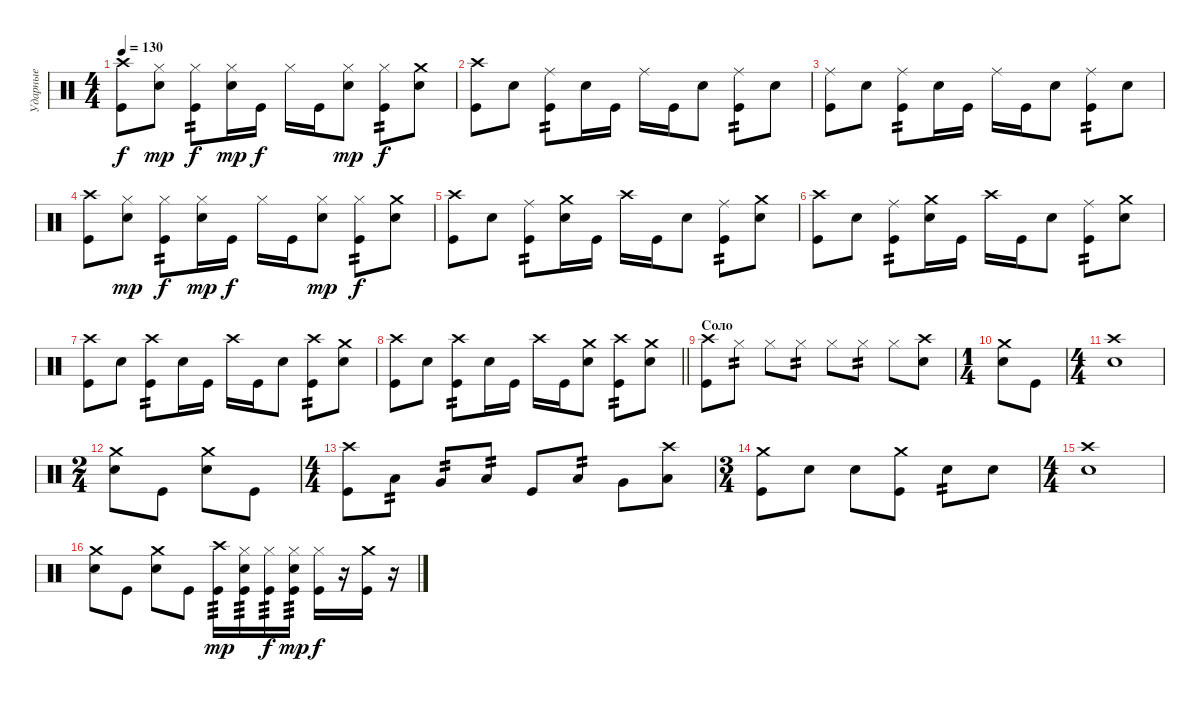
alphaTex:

\track ("Ударные" "Ударные") {instrument percussion}
\staff {score}
\articulation defaults
\ts (4 4)
\tempo 130
\clef neutral
\ks c
("Crash high (hit)" "Kick (hit)").8{dy f} ("Hi-Hat (closed)" "Snare (hit) 2").8{dy mp} ("Hi-Hat (closed)" "Kick (hit)").8{tp 2 dy f} ("Hi-Hat (closed)" "Snare (hit) 2").16{dy mp} "Kick (hit)".16{dy f} "Hi-Hat (closed)".16 "Kick (hit)".16 ("Hi-Hat (closed)" "Snare (hit) 2").8{dy mp} ("Hi-Hat (closed)" "Kick (hit)").8{tp 2 dy f} ("Crash medium (hit)" "Snare (hit) 2").8 |
("Crash high (hit)" "Kick (hit)").8 "Snare (hit) 2".8 ("Ride (middle)" "Kick (hit)").8{tp 2} "Snare (hit) 2".16 "Kick (hit)".16 "Ride (middle)".16 "Kick (hit)".16 "Snare (hit) 2".8 ("Ride (middle)" "Kick (hit)").8{tp 2} "Snare (hit) 2".8 |
("Ride (middle)" "Kick (hit)").8 "Snare (hit) 2".8 ("Ride (middle)" "Kick (hit)").8{tp 2} "Snare (hit) 2".16 "Kick (hit)".16 "Ride (middle)".16 "Kick (hit)".16 "Snare (hit) 2".8 ("Ride (middle)" "Kick (hit)").8{tp 2} "Snare (hit) 2".8 |
("Crash high (hit)" "Kick (hit)").8 ("Hi-Hat (closed)" "Snare (hit) 2").8{dy mp} ("Hi-Hat (closed)" "Kick (hit)").8{tp 2 dy f} ("Hi-Hat (closed)" "Snare (hit) 2").16{dy mp} "Kick (hit)".16{dy f} "Hi-Hat (closed)".16 "Kick (hit)".16 ("Hi-Hat (closed)" "Snare (hit) 2").8{dy mp} ("Hi-Hat (closed)" "Kick (hit)").8{tp 2 dy f} ("Crash medium (hit)" "Snare (hit) 2").8 |
("Crash high (hit)" "Kick (hit)").8 "Snare (hit) 2".8 ("Ride (middle)" "Kick (hit)").8{tp 2} ("Crash medium (hit)" "Snare (hit) 2").16 "Kick (hit)".16 "Crash high (hit)".16 "Kick (hit)".16 "Snare (hit) 2".8 ("Ride (middle)" "Kick (hit)").8{tp 2} ("Crash medium (hit)" "Snare (hit) 2").8 |
("Crash high (hit)" "Kick (hit)").8 "Snare (hit) 2".8 ("Ride (middle)" "Kick (hit)").8{tp 2} ("Crash medium (hit)" "Snare (hit) 2").16 "Kick (hit)".16 "Crash high (hit)".16 "Kick (hit)".16 "Snare (hit) 2".8 ("Ride (middle)" "Kick (hit)").8{tp 2} ("Crash medium (hit)" "Snare (hit) 2").8 |
("Crash high (hit)" "Kick (hit)").8 "Snare (hit) 2".8 ("Crash high (hit)" "Kick (hit)").8{tp 2} "Snare (hit) 2".16 "Kick (hit)".16 "Crash high (hit)".16 "Kick (hit)".16 "Snare (hit) 2".8 ("Crash high (hit)" "Kick (hit)").8{tp 2} ("Crash medium (hit)" "Snare (hit) 2").8 |
\barLineRight lightlight
("Crash high (hit)" "Kick (hit)").8 "Snare (hit) 2".8 ("Crash high (hit)" "Kick (hit)").8{tp 2} "Snare (hit) 2".16 "Kick (hit)".16 "Crash high (hit)".16 "Kick (hit)".16 ("Crash medium (hit)" "Snare (hit) 2").8 ("Crash high (hit)" "Kick (hit)").8{tp 2} ("Crash medium (hit)" "Snare (hit) 2").8 |
\section ("" "Соло")
("Crash high (hit)" "Kick (hit)").8 "Hi-Hat (closed)".8{tp 2} "Hi-Hat (closed)".8 "Hi-Hat (closed)".8{tp 2} "Hi-Hat (closed)".8 "Hi-Hat (closed)".8{tp 2} "Hi-Hat (closed)".8 ("Crash high (hit)" "Snare (hit) 2").8 |
\ts (1 4)
("Crash medium (hit)" "Snare (hit) 2").8 "Kick (hit)".8 |
\ts (4 4)
("Crash high (hit)" "Snare (hit) 2").1 |
\ts (2 4)
("Crash medium (hit)" "Snare (hit) 2").8 "Kick (hit)".8 ("Crash medium (hit)" "Snare (hit) 2").8 "Kick (hit)".8 |
\ts (4 4)
("Crash high (hit)" "Kick (hit)").8 "Low Tom (hit)".8{tp 2} "Very Low Tom (hit)".8{tp 2} "Low Floor Tom (hit)".8{tp 2} "Kick (hit)".8 "Low Tom (hit)".8{tp 2} "Very Low Tom (hit)".8 ("Crash high (hit)" "Low Floor Tom (hit)").8 |
\ts (3 4)
("Crash medium (hit)" "Kick (hit)").8 "Snare (hit) 2".8 "Snare (hit) 2".8 ("Crash medium (hit)" "Kick (hit)").8 "Snare (hit) 2".8{tp 2} "Snare (hit) 2".8 |
\ts (4 4)
("Crash high (hit)" "Snare (hit) 2").1 |
("Crash medium (hit)" "Snare (hit) 2").8 "Kick (hit)".8 ("Crash medium (hit)" "Snare (hit) 2").8 "Kick (hit)".8 ("Crash high (hit)" "Kick (hit)").16{tp 3 dy mp} ("Hi-Hat (closed)" "Snare (hit) 2" "Kick (hit)").16{tp 3} ("Hi-Hat (closed)" "Kick (hit)").16{tp 3 dy f} ("Hi-Hat (closed)" "Snare (hit) 2" "Kick (hit)").16{tp 3 dy mp} ("Hi-Hat (closed)" "Kick (hit)").16{dy f} r.16 ("Crash medium (hit)" "Kick (hit)").16 r.16
